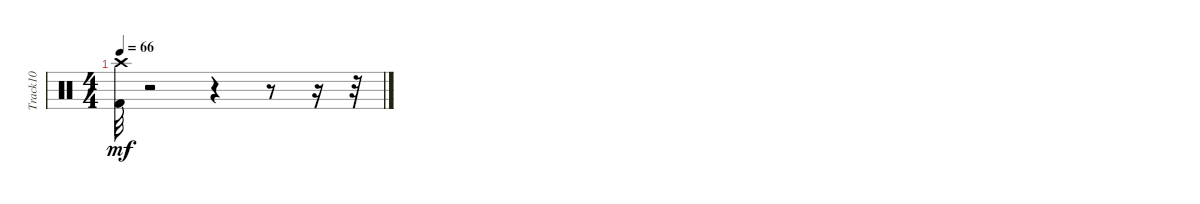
\track ("Track10" "Track10") {instrument percussion}
\staff {score}
\articulation defaults
\ts (4 4)
\tempo 66
\clef neutral
\ks c
("Kick (hit) 2" "Crash high (hit)").32{dy mf} r.2 r.4 r.8 r.16 r.32
